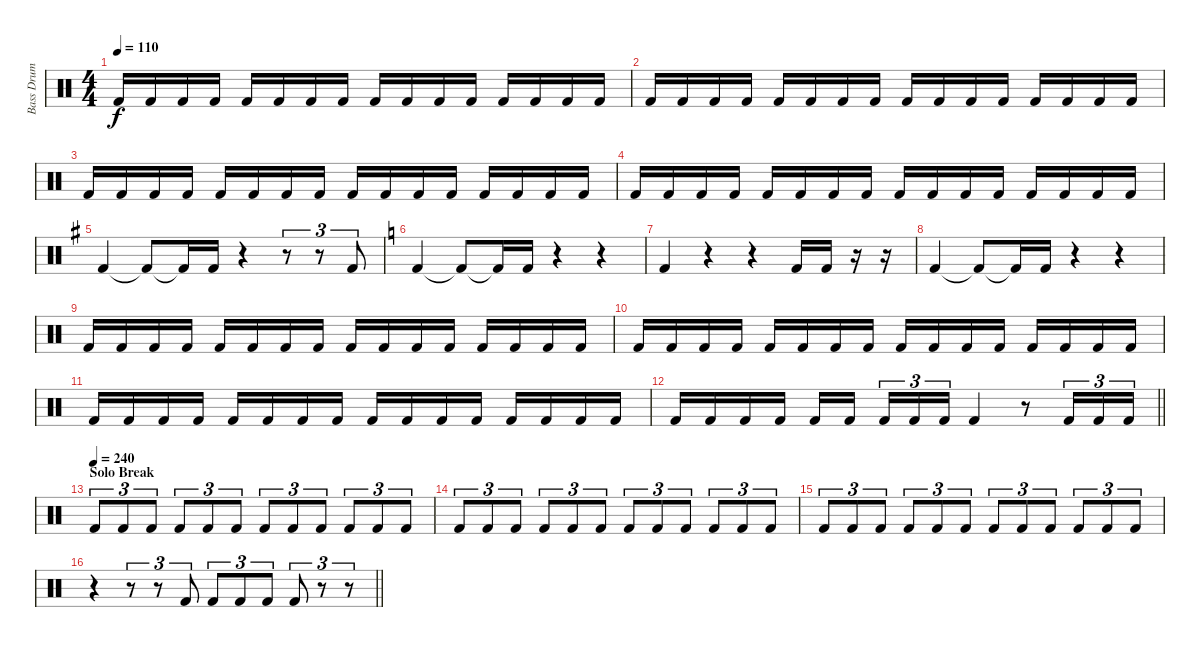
\track ("Bass Drum" "Bass Drum") {instrument percussion}
\staff {score}
\articulation defaults
\ts (4 4)
\tempo 110
\clef neutral
\ks c "Kick (hit) 2".16{dy f} "Kick (hit) 2".16 "Kick (hit) 2".16 "Kick (hit) 2".16 "Kick (hit) 2".16 "Kick (hit) 2".16 "Kick (hit) 2".16 "Kick (hit) 2".16 "Kick (hit) 2".16 "Kick (hit) 2".16 "Kick (hit) 2".16 "Kick (hit) 2".16 "Kick (hit) 2".16 "Kick (hit) 2".16 "Kick (hit) 2".16 "Kick (hit) 2".16
|
"Kick (hit) 2".16 "Kick (hit) 2".16 "Kick (hit) 2".16 "Kick (hit) 2".16 "Kick (hit) 2".16 "Kick (hit) 2".16 "Kick (hit) 2".16 "Kick (hit) 2".16 "Kick (hit) 2".16 "Kick (hit) 2".16 "Kick (hit) 2".16 "Kick (hit) 2".16 "Kick (hit) 2".16 "Kick (hit) 2".16 "Kick (hit) 2".16 "Kick (hit) 2".16 |
"Kick (hit) 2".16 "Kick (hit) 2".16 "Kick (hit) 2".16 "Kick (hit) 2".16 "Kick (hit) 2".16 "Kick (hit) 2".16 "Kick (hit) 2".16 "Kick (hit) 2".16 "Kick (hit) 2".16 "Kick (hit) 2".16 "Kick (hit) 2".16 "Kick (hit) 2".16 "Kick (hit) 2".16 "Kick (hit) 2".16 "Kick (hit) 2".16 "Kick (hit) 2".16 |
"Kick (hit) 2".16 "Kick (hit) 2".16 "Kick (hit) 2".16 "Kick (hit) 2".16 "Kick (hit) 2".16 "Kick (hit) 2".16 "Kick (hit) 2".16 "Kick (hit) 2".16 "Kick (hit) 2".16 "Kick (hit) 2".16 "Kick (hit) 2".16 "Kick (hit) 2".16 "Kick (hit) 2".16 "Kick (hit) 2".16 "Kick (hit) 2".16 "Kick (hit) 2".16 |
\ks g "Kick (hit) 2".4{volume 16} "Kick (hit) 2"{t}.8 "Kick (hit) 2"{t}.16 "Kick (hit) 2".16
r.4 r.8{tu (3 2)} r.8{tu (3 2)} "Kick (hit) 2".8{tu (3 2)} |
\ks c "Kick (hit) 2".4 "Kick (hit) 2"{t}.8 "Kick (hit) 2"{t}.16 "Kick (hit) 2".16
r.4 r.4 |
"Kick (hit) 2".4 r.4 r.4 "Kick (hit) 2".16 "Kick (hit) 2".16 r.16 r.16 |
"Kick (hit) 2".4 "Kick (hit) 2"{t}.8 "Kick (hit) 2"{t}.16 "Kick (hit) 2".16 r.4 r.4 |
"Kick (hit) 2".16 "Kick (hit) 2".16 "Kick (hit) 2".16 "Kick (hit) 2".16 "Kick (hit) 2".16 "Kick (hit) 2".16 "Kick (hit) 2".16 "Kick (hit) 2".16 "Kick (hit) 2".16 "Kick (hit) 2".16 "Kick (hit) 2".16 "Kick (hit) 2".16 "Kick (hit) 2".16 "Kick (hit) 2".16 "Kick (hit) 2".16 "Kick (hit) 2".16 |
"Kick (hit) 2".16 "Kick (hit) 2".16 "Kick (hit) 2".16 "Kick (hit) 2".16 "Kick (hit) 2".16 "Kick (hit) 2".16 "Kick (hit) 2".16 "Kick (hit) 2".16 "Kick (hit) 2".16 "Kick (hit) 2".16 "Kick (hit) 2".16 "Kick (hit) 2".16 "Kick (hit) 2".16 "Kick (hit) 2".16 "Kick (hit) 2".16 "Kick (hit) 2".16 |
"Kick (hit) 2".16 "Kick (hit) 2".16 "Kick (hit) 2".16 "Kick (hit) 2".16 "Kick (hit) 2".16 "Kick (hit) 2".16 "Kick (hit) 2".16 "Kick (hit) 2".16 "Kick (hit) 2".16 "Kick (hit) 2".16 "Kick (hit) 2".16 "Kick (hit) 2".16 "Kick (hit) 2".16 "Kick (hit) 2".16 "Kick (hit) 2".16 "Kick (hit) 2".16 |
\barLineRight lightlight "Kick (hit) 2".16 "Kick (hit) 2".16 "Kick (hit) 2".16 "Kick (hit) 2".16 "Kick (hit) 2".16 "Kick (hit) 2".16{beam splitsecondary} "Kick (hit) 2".16{tu (3 2)} "Kick (hit) 2".16{tu (3 2)} "Kick (hit) 2".16{tu (3 2)} "Kick (hit) 2".4
r.8 "Kick (hit) 2".16{tu (3 2)} "Kick (hit) 2".16{tu (3 2)} "Kick (hit) 2".16{tu (3 2)} |
\section ("" "Solo Break")
\tempo (240)
"Kick (hit) 2".8{tu (3 2)} "Kick (hit) 2".8{tu (3 2)} "Kick (hit) 2".8{tu (3 2)} "Kick (hit) 2".8{tu (3 2)} "Kick (hit) 2".8{tu (3 2)} "Kick (hit) 2".8{tu (3 2)} "Kick (hit) 2".8{tu (3 2)} "Kick (hit) 2".8{tu (3 2)} "Kick (hit) 2".8{tu (3 2)} "Kick (hit) 2".8{tu (3 2)} "Kick (hit) 2".8{tu (3 2)} "Kick (hit) 2".8{tu (3 2)} |
"Kick (hit) 2".8{tu (3 2)} "Kick (hit) 2".8{tu (3 2)} "Kick (hit) 2".8{tu (3 2)} "Kick (hit) 2".8{tu (3 2)} "Kick (hit) 2".8{tu (3 2)} "Kick (hit) 2".8{tu (3 2)} "Kick (hit) 2".8{tu (3 2)} "Kick (hit) 2".8{tu (3 2)} "Kick (hit) 2".8{tu (3 2)} "Kick (hit) 2".8{tu (3 2)} "Kick (hit) 2".8{tu (3 2)} "Kick (hit) 2".8{tu (3 2)} |
"Kick (hit) 2".8{tu (3 2)} "Kick (hit) 2".8{tu (3 2)} "Kick (hit) 2".8{tu (3 2)} "Kick (hit) 2".8{tu (3 2)} "Kick (hit) 2".8{tu (3 2)} "Kick (hit) 2".8{tu (3 2)} "Kick (hit) 2".8{tu (3 2)} "Kick (hit) 2".8{tu (3 2)} "Kick (hit) 2".8{tu (3 2)} "Kick (hit) 2".8{tu (3 2)} "Kick (hit) 2".8{tu (3 2)} "Kick (hit) 2".8{tu (3 2)} |
\barLineRight lightlight
r.4 r.8{tu (3 2)} r.8{tu (3 2)} "Kick (hit) 2".8{tu (3 2)} "Kick (hit) 2".8{tu (3 2)} "Kick (hit) 2".8{tu (3 2)} "Kick (hit) 2".8{tu (3 2)} "Kick (hit) 2".8{tu (3 2)} r.8{tu (3 2)} r.8{tu (3 2)}
